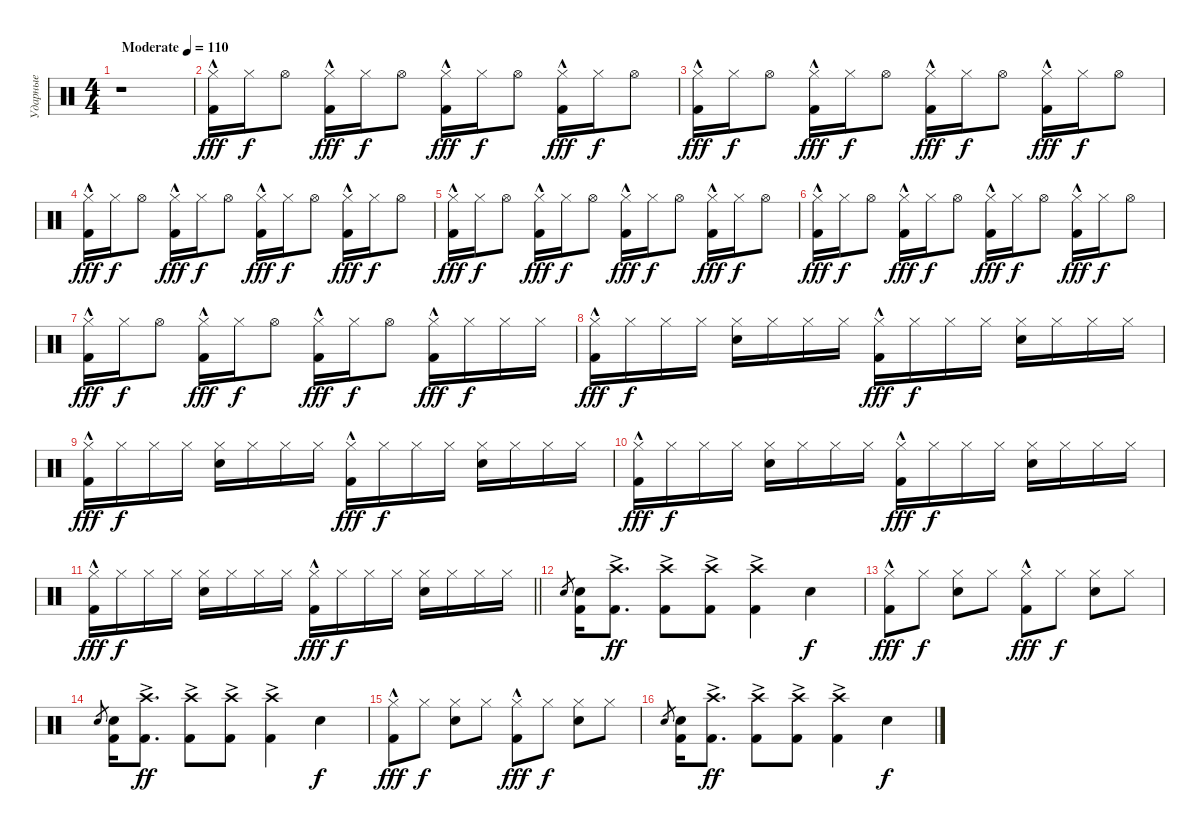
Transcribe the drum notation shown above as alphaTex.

\track ("Ударные" "Ударные") {instrument percussion}
\staff {score}
\articulation defaults
\ts (4 4)
\tempo (110 "Moderate")
\clef neutral
\ks c
r.1{dy fff} |
("Kick (hit) 2"{hac} "Hi-Hat (closed)").16 "Hi-Hat (closed)".16{dy f} "Hi-Hat (open)".8 ("Kick (hit) 2"{hac} "Hi-Hat (closed)").16{dy fff} "Hi-Hat (closed)".16{dy f} "Hi-Hat (open)".8 ("Kick (hit) 2"{hac} "Hi-Hat (closed)").16{dy fff} "Hi-Hat (closed)".16{dy f} "Hi-Hat (open)".8 ("Kick (hit) 2"{hac} "Hi-Hat (closed)").16{dy fff} "Hi-Hat (closed)".16{dy f} "Hi-Hat (open)".8 |
("Kick (hit) 2"{hac} "Hi-Hat (closed)").16{dy fff} "Hi-Hat (closed)".16{dy f} "Hi-Hat (open)".8 ("Kick (hit) 2"{hac} "Hi-Hat (closed)").16{dy fff} "Hi-Hat (closed)".16{dy f} "Hi-Hat (open)".8 ("Kick (hit) 2"{hac} "Hi-Hat (closed)").16{dy fff} "Hi-Hat (closed)".16{dy f} "Hi-Hat (open)".8 ("Kick (hit) 2"{hac} "Hi-Hat (closed)").16{dy fff} "Hi-Hat (closed)".16{dy f} "Hi-Hat (open)".8 |
("Kick (hit) 2"{hac} "Hi-Hat (closed)").16{dy fff} "Hi-Hat (closed)".16{dy f} "Hi-Hat (open)".8 ("Kick (hit) 2"{hac} "Hi-Hat (closed)").16{dy fff} "Hi-Hat (closed)".16{dy f} "Hi-Hat (open)".8 ("Kick (hit) 2"{hac} "Hi-Hat (closed)").16{dy fff} "Hi-Hat (closed)".16{dy f} "Hi-Hat (open)".8 ("Kick (hit) 2"{hac} "Hi-Hat (closed)").16{dy fff} "Hi-Hat (closed)".16{dy f} "Hi-Hat (open)".8 |
("Kick (hit) 2"{hac} "Hi-Hat (closed)").16{dy fff} "Hi-Hat (closed)".16{dy f} "Hi-Hat (open)".8 ("Kick (hit) 2"{hac} "Hi-Hat (closed)").16{dy fff} "Hi-Hat (closed)".16{dy f} "Hi-Hat (open)".8 ("Kick (hit) 2"{hac} "Hi-Hat (closed)").16{dy fff} "Hi-Hat (closed)".16{dy f} "Hi-Hat (open)".8 ("Kick (hit) 2"{hac} "Hi-Hat (closed)").16{dy fff} "Hi-Hat (closed)".16{dy f} "Hi-Hat (open)".8 |
("Kick (hit) 2"{hac} "Hi-Hat (closed)").16{dy fff} "Hi-Hat (closed)".16{dy f} "Hi-Hat (open)".8 ("Kick (hit) 2"{hac} "Hi-Hat (closed)").16{dy fff} "Hi-Hat (closed)".16{dy f} "Hi-Hat (open)".8 ("Kick (hit) 2"{hac} "Hi-Hat (closed)").16{dy fff} "Hi-Hat (closed)".16{dy f} "Hi-Hat (open)".8 ("Kick (hit) 2"{hac} "Hi-Hat (closed)").16{dy fff} "Hi-Hat (closed)".16{dy f} "Hi-Hat (open)".8 |
("Kick (hit) 2"{hac} "Hi-Hat (closed)").16{dy fff} "Hi-Hat (closed)".16{dy f} "Hi-Hat (open)".8 ("Kick (hit) 2"{hac} "Hi-Hat (closed)").16{dy fff} "Hi-Hat (closed)".16{dy f} "Hi-Hat (open)".8 ("Kick (hit) 2"{hac} "Hi-Hat (closed)").16{dy fff} "Hi-Hat (closed)".16{dy f} "Hi-Hat (open)".8 ("Kick (hit) 2"{hac} "Hi-Hat (closed)").16{dy fff} "Hi-Hat (closed)".16{dy f} "Hi-Hat (closed)".16 "Hi-Hat (closed)".16 |
("Kick (hit) 2"{hac} "Hi-Hat (closed)").16{dy fff} "Hi-Hat (closed)".16{dy f} "Hi-Hat (closed)".16 "Hi-Hat (closed)".16 ("Snare (hit) 2" "Hi-Hat (closed)").16 "Hi-Hat (closed)".16 "Hi-Hat (closed)".16 "Hi-Hat (closed)".16 ("Kick (hit) 2"{hac} "Hi-Hat (closed)").16{dy fff} "Hi-Hat (closed)".16{dy f} "Hi-Hat (closed)".16 "Hi-Hat (closed)".16 ("Snare (hit) 2" "Hi-Hat (closed)").16 "Hi-Hat (closed)".16 "Hi-Hat (closed)".16 "Hi-Hat (closed)".16 |
("Kick (hit) 2"{hac} "Hi-Hat (closed)").16{dy fff} "Hi-Hat (closed)".16{dy f} "Hi-Hat (closed)".16 "Hi-Hat (closed)".16 ("Snare (hit) 2" "Hi-Hat (closed)").16 "Hi-Hat (closed)".16 "Hi-Hat (closed)".16 "Hi-Hat (closed)".16 ("Kick (hit) 2"{hac} "Hi-Hat (closed)").16{dy fff} "Hi-Hat (closed)".16{dy f} "Hi-Hat (closed)".16 "Hi-Hat (closed)".16 ("Snare (hit) 2" "Hi-Hat (closed)").16 "Hi-Hat (closed)".16 "Hi-Hat (closed)".16 "Hi-Hat (closed)".16 |
("Kick (hit) 2"{hac} "Hi-Hat (closed)").16{dy fff} "Hi-Hat (closed)".16{dy f} "Hi-Hat (closed)".16 "Hi-Hat (closed)".16 ("Snare (hit) 2" "Hi-Hat (closed)").16 "Hi-Hat (closed)".16 "Hi-Hat (closed)".16 "Hi-Hat (closed)".16 ("Kick (hit) 2"{hac} "Hi-Hat (closed)").16{dy fff} "Hi-Hat (closed)".16{dy f} "Hi-Hat (closed)".16 "Hi-Hat (closed)".16 ("Snare (hit) 2" "Hi-Hat (closed)").16 "Hi-Hat (closed)".16 "Hi-Hat (closed)".16 "Hi-Hat (closed)".16 |
\barLineRight lightlight
("Kick (hit) 2"{hac} "Hi-Hat (closed)").16{dy fff} "Hi-Hat (closed)".16{dy f} "Hi-Hat (closed)".16 "Hi-Hat (closed)".16 ("Snare (hit) 2" "Hi-Hat (closed)").16 "Hi-Hat (closed)".16 "Hi-Hat (closed)".16 "Hi-Hat (closed)".16 ("Kick (hit) 2"{hac} "Hi-Hat (closed)").16{dy fff} "Hi-Hat (closed)".16{dy f} "Hi-Hat (closed)".16 "Hi-Hat (closed)".16 ("Snare (hit) 2" "Hi-Hat (closed)").16 "Hi-Hat (closed)".16 "Hi-Hat (closed)".16 "Hi-Hat (closed)".16 |
"Snare (hit) 2".8{gr} ("Kick (hit) 2" "Snare (hit) 2").16 ("Kick (hit) 2" "Crash high (hit)"{ac}).8{d dy ff} ("Kick (hit) 2" "Crash high (hit)"{ac}).8 ("Kick (hit) 2" "Crash high (hit)"{ac}).8 ("Kick (hit) 2" "Crash high (hit)"{ac}).4 "Snare (hit) 2".4{dy f} |
("Kick (hit) 2"{hac} "Hi-Hat (closed)").8{dy fff} "Hi-Hat (closed)".8{dy f} ("Snare (hit) 2" "Hi-Hat (closed)").8 "Hi-Hat (closed)".8 ("Kick (hit) 2"{hac} "Hi-Hat (closed)").8{dy fff} "Hi-Hat (closed)".8{dy f} ("Snare (hit) 2" "Hi-Hat (closed)").8 "Hi-Hat (closed)".8 |
"Snare (hit) 2".8{gr} ("Kick (hit) 2" "Snare (hit) 2").16 ("Kick (hit) 2" "Crash high (hit)"{ac}).8{d dy ff} ("Kick (hit) 2" "Crash high (hit)"{ac}).8 ("Kick (hit) 2" "Crash high (hit)"{ac}).8 ("Kick (hit) 2" "Crash high (hit)"{ac}).4 "Snare (hit) 2".4{dy f} |
("Kick (hit) 2"{hac} "Hi-Hat (closed)").8{dy fff} "Hi-Hat (closed)".8{dy f} ("Snare (hit) 2" "Hi-Hat (closed)").8 "Hi-Hat (closed)".8 ("Kick (hit) 2"{hac} "Hi-Hat (closed)").8{dy fff} "Hi-Hat (closed)".8{dy f} ("Snare (hit) 2" "Hi-Hat (closed)").8 "Hi-Hat (closed)".8 |
"Snare (hit) 2".8{gr} ("Kick (hit) 2" "Snare (hit) 2").16 ("Kick (hit) 2" "Crash high (hit)"{ac}).8{d dy ff} ("Kick (hit) 2" "Crash high (hit)"{ac}).8 ("Kick (hit) 2" "Crash high (hit)"{ac}).8 ("Kick (hit) 2" "Crash high (hit)"{ac}).4 "Snare (hit) 2".4{dy f}
